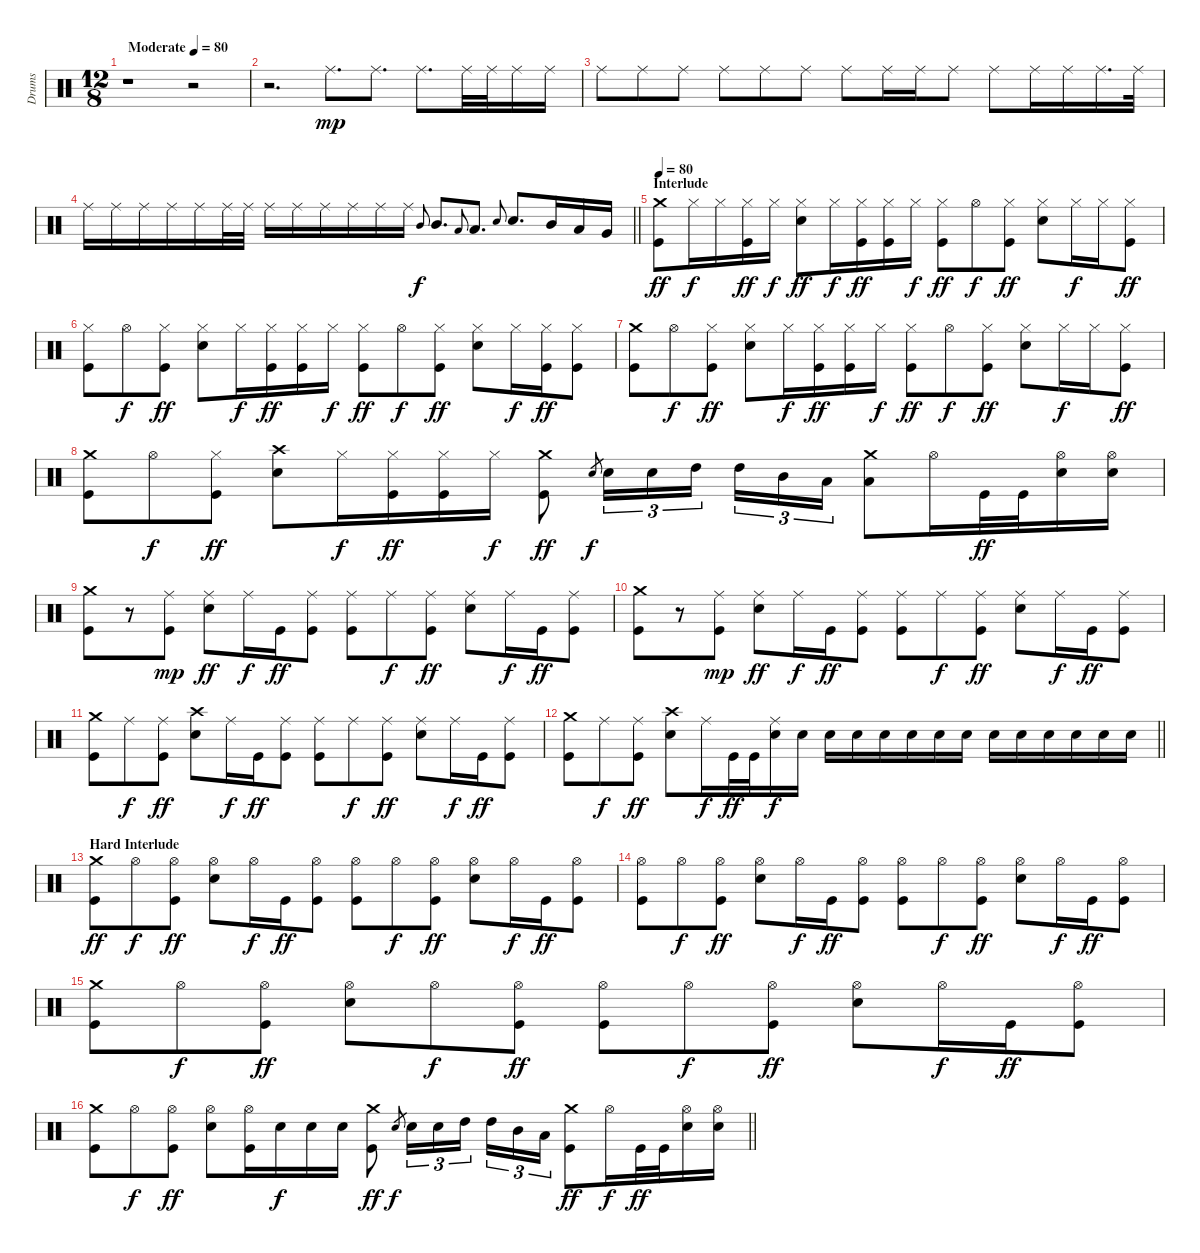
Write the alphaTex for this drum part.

\track ("Drums" "Drums") {instrument percussion}
\staff {score}
\articulation defaults
\ts (12 8)
\tempo (80 "Moderate")
\tempo 75
\tempo (80 "Moderate")
\clef neutral
\ks c
r.1{dy mp} r.2 |
r.2{d} "Ride (middle)".8{d} "Ride (middle)".8{d} "Ride (middle)".8{d} "Ride (middle)".32 "Ride (middle)".32 "Ride (middle)".16 "Ride (middle)".16 |
"Ride (middle)".8 "Ride (middle)".8 "Ride (middle)".8 "Ride (middle)".8 "Ride (middle)".8 "Ride (middle)".8 "Ride (middle)".8 "Ride (middle)".16 "Ride (middle)".16 "Ride (middle)".8 "Ride (middle)".8 "Ride (middle)".16 "Ride (middle)".16 "Ride (middle)".16{d} "Ride (middle)".32 |
\barLineRight lightlight "Ride (middle)".16 "Ride (middle)".16 "Ride (middle)".16 "Ride (middle)".16 "Ride (middle)".16 "Ride (middle)".32 "Ride (middle)".32 "Ride (middle)".16 "Ride (middle)".16 "Ride (middle)".16 "Ride (middle)".16 "Ride (middle)".16 "Ride (middle)".16 "Mid Tom (hit)".8{gr onbeat dy f} "Mid Tom (hit)".8{d} "Low Tom (hit)".8{gr onbeat} "Low Tom (hit)".8{d} "Electric Snare (hit)".8{gr onbeat} "Electric Snare (hit)".8{d} "Mid Tom (hit)".16 "Low Tom (hit)".16 "Very Low Tom (hit)".16
|
\section ("" "Interlude")
\tempo 80
("Kick (hit)" "Crash medium (hit)").8{dy ff} "Hi-Hat (closed)".16{dy f} "Hi-Hat (closed)".16 ("Kick (hit)" "Hi-Hat (closed)").16{dy ff} "Hi-Hat (closed)".16{dy f} ("Electric Snare (hit)" "Hi-Hat (closed)").8{dy ff} "Hi-Hat (closed)".16{dy f} ("Kick (hit)" "Hi-Hat (closed)").16{dy ff} ("Kick (hit)" "Hi-Hat (closed)").16 "Hi-Hat (closed)".16{dy f} ("Kick (hit)" "Hi-Hat (closed)").8{dy ff} "Hi-Hat (open)".8{dy f} ("Kick (hit)" "Hi-Hat (closed)").8{dy ff} ("Electric Snare (hit)" "Hi-Hat (closed)").8 "Hi-Hat (closed)".16{dy f} "Hi-Hat (closed)".16 ("Kick (hit)" "Hi-Hat (closed)").8{dy ff} |
("Kick (hit)" "Hi-Hat (closed)").8 "Hi-Hat (open)".8{dy f} ("Kick (hit)" "Hi-Hat (closed)").8{dy ff} ("Electric Snare (hit)" "Hi-Hat (closed)").8 "Hi-Hat (closed)".16{dy f} ("Kick (hit)" "Hi-Hat (closed)").16{dy ff} ("Kick (hit)" "Hi-Hat (closed)").16 "Hi-Hat (closed)".16{dy f} ("Kick (hit)" "Hi-Hat (closed)").8{dy ff} "Hi-Hat (open)".8{dy f} ("Kick (hit)" "Hi-Hat (closed)").8{dy ff} ("Electric Snare (hit)" "Hi-Hat (closed)").8 "Hi-Hat (closed)".16{dy f} ("Kick (hit)" "Hi-Hat (closed)").16{dy ff} ("Kick (hit)" "Hi-Hat (closed)").8 |
("Kick (hit)" "Crash medium (hit)").8 "Hi-Hat (open)".8{dy f} ("Kick (hit)" "Hi-Hat (closed)").8{dy ff} ("Electric Snare (hit)" "Hi-Hat (closed)").8 "Hi-Hat (closed)".16{dy f} ("Kick (hit)" "Hi-Hat (closed)").16{dy ff} ("Kick (hit)" "Hi-Hat (closed)").16 "Hi-Hat (closed)".16{dy f} ("Kick (hit)" "Hi-Hat (closed)").8{dy ff} "Hi-Hat (open)".8{dy f} ("Kick (hit)" "Hi-Hat (closed)").8{dy ff} ("Electric Snare (hit)" "Hi-Hat (closed)").8 "Hi-Hat (closed)".16{dy f} "Hi-Hat (closed)".16 ("Kick (hit)" "Hi-Hat (closed)").8{dy ff} |
("Kick (hit)" "Crash medium (hit)").8 "Hi-Hat (open)".8{dy f} ("Kick (hit)" "Hi-Hat (closed)").8{dy ff} ("Electric Snare (hit)" "Crash high (hit)").8 "Hi-Hat (closed)".16{dy f} ("Kick (hit)" "Hi-Hat (closed)").16{dy ff} ("Kick (hit)" "Hi-Hat (closed)").16 "Hi-Hat (closed)".16{dy f} ("Kick (hit)" "Crash medium (hit)").8{dy ff} "Electric Snare (hit)".8{gr dy f} "Electric Snare (hit)".16{tu (3 2)} "Electric Snare (hit)".16{tu (3 2)} "High Tom (hit)".16{tu (3 2) beam splitsecondary} "High Tom (hit)".16{tu (3 2)} "Mid Tom (hit)".16{tu (3 2)} "Low Tom (hit)".16{tu (3 2)} ("Low Tom (hit)" "Crash medium (hit)").8 "Hi-Hat (open)".16 "Kick (hit)".32{dy ff} "Kick (hit)".32 ("Electric Snare (hit)" "Hi-Hat (open)").16 ("Electric Snare (hit)" "Hi-Hat (open)").16 |
("Kick (hit)" "Crash medium (hit)").8 r.8 ("Kick (hit)" "Ride (middle)").8{dy mp} ("Electric Snare (hit)" "Ride (middle)").8{dy ff} "Ride (middle)".16{dy f} "Kick (hit)".16{dy ff} ("Kick (hit)" "Ride (middle)").8 ("Kick (hit)" "Ride (middle)").8 "Ride (middle)".8{dy f} ("Kick (hit)" "Ride (middle)").8{dy ff} ("Electric Snare (hit)" "Ride (middle)").8 "Ride (middle)".16{dy f} "Kick (hit)".16{dy ff} ("Kick (hit)" "Ride (middle)").8 |
("Kick (hit)" "Crash medium (hit)").8 r.8 ("Kick (hit)" "Ride (middle)").8{dy mp} ("Electric Snare (hit)" "Ride (middle)").8{dy ff} "Ride (middle)".16{dy f} "Kick (hit)".16{dy ff} ("Kick (hit)" "Ride (middle)").8 ("Kick (hit)" "Ride (middle)").8 "Ride (middle)".8{dy f} ("Kick (hit)" "Ride (middle)").8{dy ff} ("Electric Snare (hit)" "Ride (middle)").8 "Ride (middle)".16{dy f} "Kick (hit)".16{dy ff} ("Kick (hit)" "Ride (middle)").8 |
("Kick (hit)" "Crash medium (hit)").8 "Ride (middle)".8{dy f} ("Kick (hit)" "Ride (middle)").8{dy ff} ("Electric Snare (hit)" "Crash high (hit)").8 "Ride (middle)".16{dy f} "Kick (hit)".16{dy ff} ("Kick (hit)" "Ride (middle)").8 ("Kick (hit)" "Ride (middle)").8 "Ride (middle)".8{dy f} ("Kick (hit)" "Ride (middle)").8{dy ff} ("Electric Snare (hit)" "Ride (middle)").8 "Ride (middle)".16{dy f} "Kick (hit)".16{dy ff} ("Kick (hit)" "Ride (middle)").8 |
\barLineRight lightlight
("Kick (hit)" "Crash medium (hit)").8 "Ride (middle)".8{dy f} ("Kick (hit)" "Ride (middle)").8{dy ff} ("Electric Snare (hit)" "Crash high (hit)").8 "Ride (middle)".16{dy f} "Kick (hit)".32{dy ff} "Kick (hit)".32 ("Electric Snare (hit)" "Ride (middle)").16{dy f} "Electric Snare (hit)".16 "Electric Snare (hit)".16 "Electric Snare (hit)".16 "Electric Snare (hit)".16 "Electric Snare (hit)".16 "Electric Snare (hit)".16 "Electric Snare (hit)".16 "Electric Snare (hit)".16 "Electric Snare (hit)".16 "Electric Snare (hit)".16 "Electric Snare (hit)".16 "Electric Snare (hit)".16 "Electric Snare (hit)".16 |
\section ("" "Hard Interlude")
("Kick (hit)" "Crash medium (hit)").8{dy ff} "Hi-Hat (open)".8{dy f} ("Kick (hit)" "Hi-Hat (open)").8{dy ff} ("Electric Snare (hit)" "Hi-Hat (open)").8 "Hi-Hat (open)".16{dy f} "Kick (hit)".16{dy ff} ("Kick (hit)" "Hi-Hat (open)").8 ("Kick (hit)" "Hi-Hat (open)").8 "Hi-Hat (open)".8{dy f} ("Kick (hit)" "Hi-Hat (open)").8{dy ff} ("Electric Snare (hit)" "Hi-Hat (open)").8 "Hi-Hat (open)".16{dy f} "Kick (hit)".16{dy ff} ("Kick (hit)" "Hi-Hat (open)").8 |
("Kick (hit)" "Hi-Hat (open)").8 "Hi-Hat (open)".8{dy f} ("Kick (hit)" "Hi-Hat (open)").8{dy ff} ("Electric Snare (hit)" "Hi-Hat (open)").8 "Hi-Hat (open)".16{dy f} "Kick (hit)".16{dy ff} ("Kick (hit)" "Hi-Hat (open)").8 ("Kick (hit)" "Hi-Hat (open)").8 "Hi-Hat (open)".8{dy f} ("Kick (hit)" "Hi-Hat (open)").8{dy ff} ("Electric Snare (hit)" "Hi-Hat (open)").8 "Hi-Hat (open)".16{dy f} "Kick (hit)".16{dy ff} ("Kick (hit)" "Hi-Hat (open)").8 |
("Kick (hit)" "Crash medium (hit)").8 "Hi-Hat (open)".8{dy f} ("Kick (hit)" "Hi-Hat (open)").8{dy ff} ("Electric Snare (hit)" "Hi-Hat (open)").8 "Hi-Hat (open)".8{dy f} ("Kick (hit)" "Hi-Hat (open)").8{dy ff} ("Kick (hit)" "Hi-Hat (open)").8 "Hi-Hat (open)".8{dy f} ("Kick (hit)" "Hi-Hat (open)").8{dy ff} ("Electric Snare (hit)" "Hi-Hat (open)").8 "Hi-Hat (open)".16{dy f} "Kick (hit)".16{dy ff} ("Kick (hit)" "Hi-Hat (open)").8 |
\barLineRight lightlight
("Kick (hit)" "Crash medium (hit)").8 "Hi-Hat (open)".8{dy f} ("Kick (hit)" "Hi-Hat (open)").8{dy ff} ("Electric Snare (hit)" "Hi-Hat (open)").8 ("Kick (hit)" "Hi-Hat (open)").16 "Electric Snare (hit)".16{dy f} "Electric Snare (hit)".16 "Electric Snare (hit)".16 ("Kick (hit)" "Crash medium (hit)").8{dy ff} "Electric Snare (hit)".8{gr dy f} "Electric Snare (hit)".16{tu (3 2)} "Electric Snare (hit)".16{tu (3 2)} "High Tom (hit)".16{tu (3 2) beam splitsecondary} "High Tom (hit)".16{tu (3 2)} "Mid Tom (hit)".16{tu (3 2)} "Low Tom (hit)".16{tu (3 2)} ("Kick (hit)" "Crash medium (hit)").8{dy ff} "Hi-Hat (open)".16{dy f} "Kick (hit)".32{dy ff} "Kick (hit)".32 ("Electric Snare (hit)" "Hi-Hat (open)").16 ("Electric Snare (hit)" "Hi-Hat (open)").16
